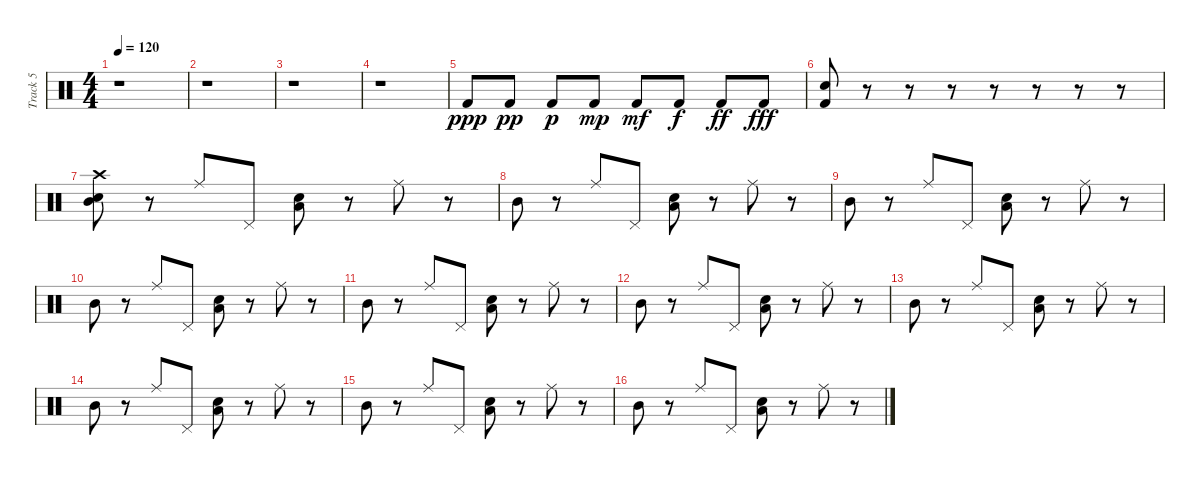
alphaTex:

\track ("Track 5" "Track 5") {instrument percussion}
\staff {score}
\articulation defaults
\ts (4 4)
\tempo 120
\clef neutral
\ks c
r.1{dy ppp} |
r.1 |
r.1 |
r.1 |
"Kick (hit) 2".8 "Kick (hit) 2".8{dy pp} "Kick (hit) 2".8{dy p} "Kick (hit) 2".8{dy mp} "Kick (hit) 2".8{dy mf} "Kick (hit) 2".8{dy f} "Kick (hit) 2".8{dy ff} "Kick (hit) 2".8{dy fff} |
("Kick (hit) 2" "Snare (hit) 2").8 r.8 r.8 r.8 r.8 r.8 r.8 r.8 |
("Crash high (hit)" "Mid Tom (hit)" "Snare (hit) 2").8 r.8 "Ride (middle)".8 "Pedal Hi-Hat (hit)".8 ("Snare (hit) 2" "Low Tom (hit)").8 r.8 "Ride (middle)".8 r.8 |
"Mid Tom (hit)".8 r.8 "Ride (middle)".8 "Pedal Hi-Hat (hit)".8 ("Low Tom (hit)" "Snare (hit) 2").8 r.8 "Ride (middle)".8 r.8 |
"Mid Tom (hit)".8 r.8 "Ride (middle)".8 "Pedal Hi-Hat (hit)".8 ("Low Tom (hit)" "Snare (hit) 2").8 r.8 "Ride (middle)".8 r.8 |
"Mid Tom (hit)".8 r.8 "Ride (middle)".8 "Pedal Hi-Hat (hit)".8 ("Low Tom (hit)" "Snare (hit) 2").8 r.8 "Ride (middle)".8 r.8 |
"Mid Tom (hit)".8 r.8 "Ride (middle)".8 "Pedal Hi-Hat (hit)".8 ("Low Tom (hit)" "Snare (hit) 2").8 r.8 "Ride (middle)".8 r.8 |
"Mid Tom (hit)".8 r.8 "Ride (middle)".8 "Pedal Hi-Hat (hit)".8 ("Low Tom (hit)" "Snare (hit) 2").8 r.8 "Ride (middle)".8 r.8 |
"Mid Tom (hit)".8 r.8 "Ride (middle)".8 "Pedal Hi-Hat (hit)".8 ("Low Tom (hit)" "Snare (hit) 2").8 r.8 "Ride (middle)".8 r.8 |
"Mid Tom (hit)".8 r.8 "Ride (middle)".8 "Pedal Hi-Hat (hit)".8 ("Low Tom (hit)" "Snare (hit) 2").8 r.8 "Ride (middle)".8 r.8 |
"Mid Tom (hit)".8 r.8 "Ride (middle)".8 "Pedal Hi-Hat (hit)".8 ("Low Tom (hit)" "Snare (hit) 2").8 r.8 "Ride (middle)".8 r.8 |
"Mid Tom (hit)".8 r.8 "Ride (middle)".8 "Pedal Hi-Hat (hit)".8 ("Low Tom (hit)" "Snare (hit) 2").8 r.8 "Ride (middle)".8 r.8
